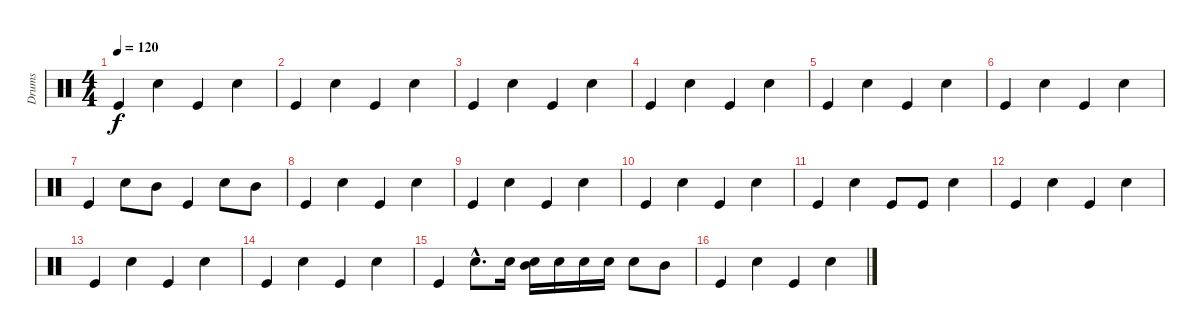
\track ("Drums" "Drums") {instrument percussion}
\staff {score}
\articulation defaults
\ts (4 4)
\tempo 120
\clef neutral
\ks c "Kick (hit)".4{dy f} "Snare (hit) 2".4 "Kick (hit)".4 "Snare (hit) 2".4
|
"Kick (hit)".4 "Snare (hit) 2".4 "Kick (hit)".4 "Snare (hit) 2".4 |
"Kick (hit)".4 "Snare (hit) 2".4 "Kick (hit)".4 "Snare (hit) 2".4 |
"Kick (hit)".4 "Snare (hit) 2".4 "Kick (hit)".4 "Snare (hit) 2".4 |
"Kick (hit)".4 "Snare (hit) 2".4 "Kick (hit)".4 "Snare (hit) 2".4 |
"Kick (hit)".4 "Snare (hit) 2".4 "Kick (hit)".4 "Snare (hit) 2".4 |
"Kick (hit)".4 "Snare (hit) 2".8 "Mid Tom (hit)".8 "Kick (hit)".4 "Snare (hit) 2".8 "Mid Tom (hit)".8 |
"Kick (hit)".4 "Snare (hit) 2".4 "Kick (hit)".4 "Snare (hit) 2".4 |
"Kick (hit)".4 "Snare (hit) 2".4 "Kick (hit)".4 "Snare (hit) 2".4 |
"Kick (hit)".4 "Snare (hit) 2".4 "Kick (hit)".4 "Snare (hit) 2".4 |
"Kick (hit)".4 "Snare (hit) 2".4 "Kick (hit)".8 "Kick (hit)".8 "Snare (hit) 2".4 |
"Kick (hit)".4 "Snare (hit) 2".4 "Kick (hit)".4 "Snare (hit) 2".4 |
"Kick (hit)".4 "Snare (hit) 2".4 "Kick (hit)".4 "Snare (hit) 2".4 |
"Kick (hit)".4 "Snare (hit) 2".4 "Kick (hit)".4 "Snare (hit) 2".4 |
"Kick (hit)".4 "Snare (hit) 2"{hac}.8{d} "Snare (hit) 2".16 ("Mid Tom (hit)" "Snare (hit) 2").16 "Snare (hit) 2".16 "Snare (hit) 2".16 "Snare (hit) 2".16 "Snare (hit) 2".8 "Mid Tom (hit)".8 |
"Kick (hit)".4 "Snare (hit) 2".4 "Kick (hit)".4 "Snare (hit) 2".4
